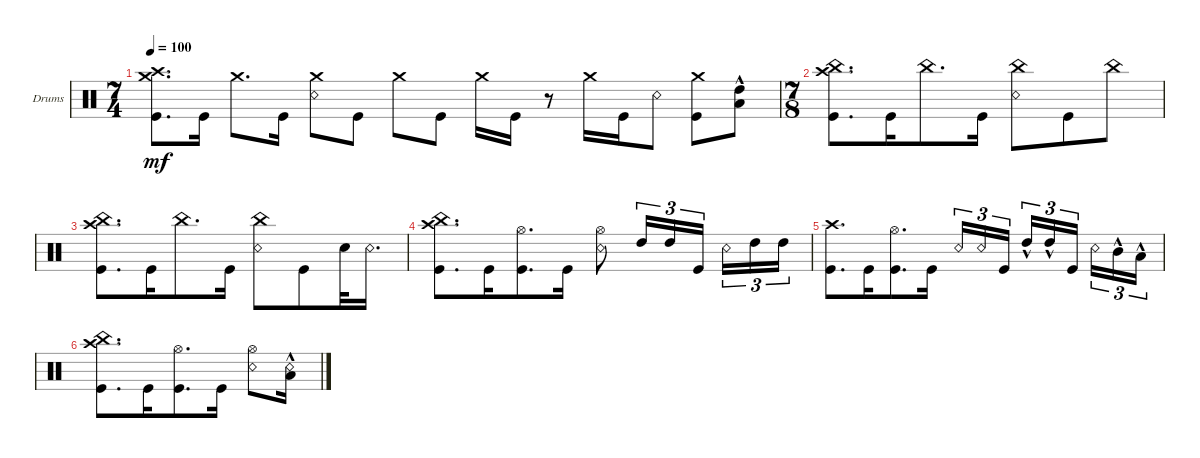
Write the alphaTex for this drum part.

\defaultSystemsLayout 4
\bracketExtendMode groupsimilarinstruments
\firstSystemTrackNameOrientation horizontal
\otherSystemsTrackNameOrientation horizontal
\track ("Drumkit" "Drums") {instrument percussion}
\staff {score}
\articulation defaults
\ts (7 4)
\tempo 100
\clef neutral
\ks c
("Kick (hit)" "Crash high (hit)" "Crash medium (hit)").8{d dy mf} "Kick (hit)".16 "Crash medium (hit)".8{d} "Kick (hit)".16 ("Snare (rim shot)" "Crash medium (hit)").8 "Kick (hit)".8 "Crash medium (hit)".8 "Kick (hit)".8 "Crash medium (hit)".16 "Kick (hit)".16 r.8 "Crash medium (hit)".16 "Kick (hit)".16 "Snare (rim shot)".8 ("Kick (hit)" "Crash medium (hit)").8 ("Low Tom (hit)"{hac} "High Tom (hit)"{hac}).8 |
\ts (7 8)
("Kick (hit)" "China (hit)" "Crash high (hit)").8{d} "Kick (hit)".16 "China (hit)".8{d} "Kick (hit)".16 ("Snare (rim shot)" "China (hit)").8 "Kick (hit)".8 "China (hit)".8 |
("Kick (hit)" "China (hit)" "Crash high (hit)").8{d} "Kick (hit)".16 "China (hit)".8{d} "Kick (hit)".16 ("Snare (rim shot)" "China (hit)").8 "Kick (hit)".8 "Snare (hit) 2".32 "Snare (rim shot)".16{d} |
("Kick (hit)" "China (hit)" "Crash high (hit)").8{d} "Kick (hit)".16 ("Hi-Hat (open)" "Kick (hit)").8{d} "Kick (hit)".16 ("Snare (rim shot)" "Hi-Hat (open)").8 "High Tom (hit)".16{tu (3 2)} "High Tom (hit)".16{tu (3 2)} "Kick (hit)".16{tu (3 2)} "Snare (rim shot)".16{tu (3 2)} "High Tom (hit)".16{tu (3 2)} "High Tom (hit)".16{tu (3 2)} |
("Kick (hit)" "Crash high (hit)").8{d} "Kick (hit)".16 ("Hi-Hat (open)" "Kick (hit)").8{d} "Kick (hit)".16 "Snare (rim shot)".16{tu (3 2)} "Snare (rim shot)".16{tu (3 2)} "Kick (hit)".16{tu (3 2)} "High Tom (hit)"{hac}.16{tu (3 2)} "High Tom (hit)"{hac}.16{tu (3 2)} "Kick (hit)".16{tu (3 2)} "Snare (rim shot)".16{tu (3 2)} "Mid Tom (hit)"{hac}.16{tu (3 2)} "Low Tom (hit)"{hac}.16{tu (3 2)} |
("Kick (hit)" "China (hit)" "Crash high (hit)").8{d} "Kick (hit)".16 ("Hi-Hat (open)" "Kick (hit)").8{d} "Kick (hit)".16 ("Snare (rim shot)" "Hi-Hat (open)").8 ("Low Tom (hit)"{hac} "Snare (rim shot)").16
